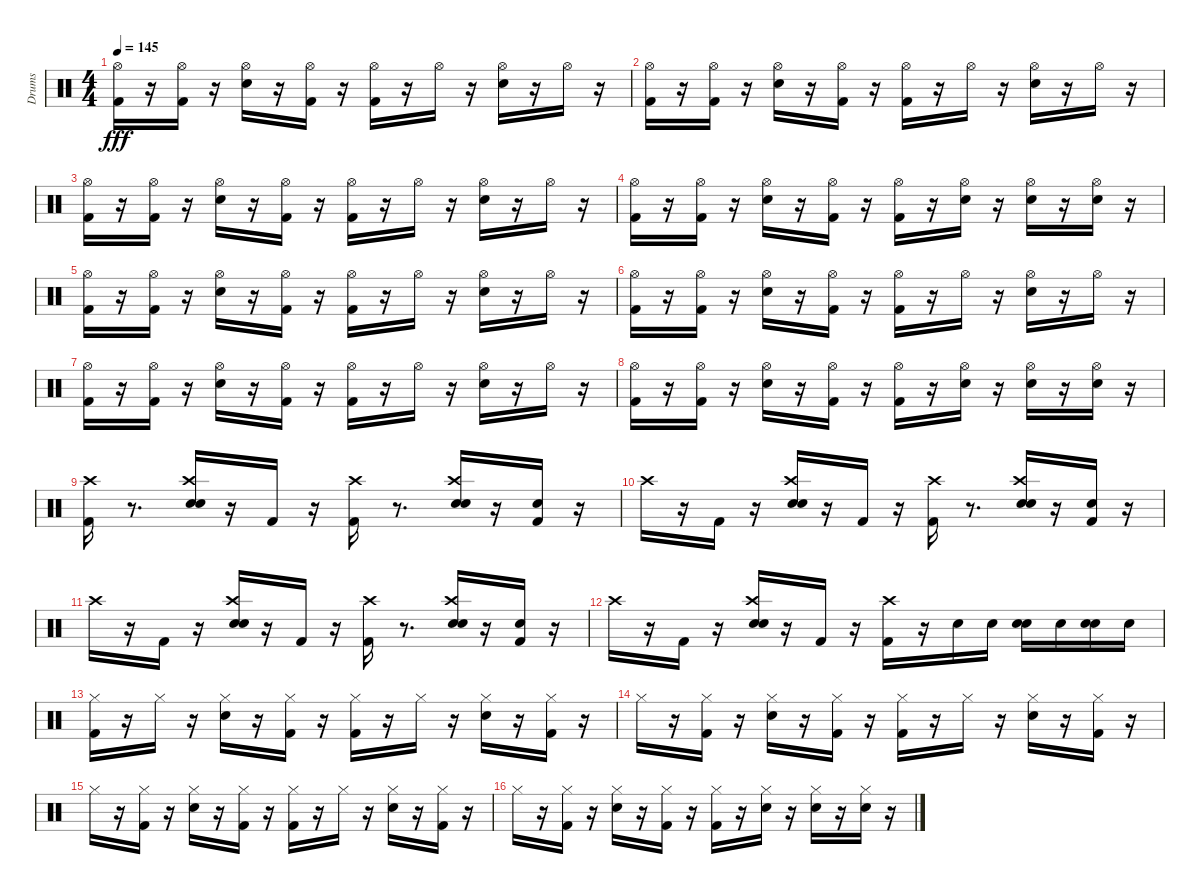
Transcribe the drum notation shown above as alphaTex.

\track ("Drums" "Drums") {instrument percussion}
\staff {score}
\articulation defaults
\ts (4 4)
\tempo 145
\clef neutral
\ks c
("Hi-Hat (open)" "Kick (hit) 2").16{dy fff} r.16 ("Kick (hit) 2" "Hi-Hat (open)").16 r.16 ("Hi-Hat (open)" "Electric Snare (hit)").16 r.16 ("Kick (hit) 2" "Hi-Hat (open)").16 r.16 ("Hi-Hat (open)" "Kick (hit) 2").16 r.16 "Hi-Hat (open)".16 r.16 ("Hi-Hat (open)" "Electric Snare (hit)").16 r.16 "Hi-Hat (open)".16 r.16 |
("Hi-Hat (open)" "Kick (hit) 2").16 r.16 ("Kick (hit) 2" "Hi-Hat (open)").16 r.16 ("Hi-Hat (open)" "Electric Snare (hit)").16 r.16 ("Kick (hit) 2" "Hi-Hat (open)").16 r.16 ("Hi-Hat (open)" "Kick (hit) 2").16 r.16 "Hi-Hat (open)".16 r.16 ("Hi-Hat (open)" "Electric Snare (hit)").16 r.16 "Hi-Hat (open)".16 r.16 |
("Hi-Hat (open)" "Kick (hit) 2").16 r.16 ("Kick (hit) 2" "Hi-Hat (open)").16 r.16 ("Hi-Hat (open)" "Electric Snare (hit)").16 r.16 ("Kick (hit) 2" "Hi-Hat (open)").16 r.16 ("Hi-Hat (open)" "Kick (hit) 2").16 r.16 "Hi-Hat (open)".16 r.16 ("Hi-Hat (open)" "Electric Snare (hit)").16 r.16 "Hi-Hat (open)".16 r.16 |
("Hi-Hat (open)" "Kick (hit) 2").16 r.16 ("Kick (hit) 2" "Hi-Hat (open)").16 r.16 ("Hi-Hat (open)" "Electric Snare (hit)").16 r.16 ("Kick (hit) 2" "Hi-Hat (open)").16 r.16 ("Hi-Hat (open)" "Kick (hit) 2").16 r.16 ("Electric Snare (hit)" "Hi-Hat (open)").16 r.16 ("Hi-Hat (open)" "Electric Snare (hit)").16 r.16 ("Electric Snare (hit)" "Hi-Hat (open)").16 r.16 |
("Hi-Hat (open)" "Kick (hit) 2").16 r.16 ("Kick (hit) 2" "Hi-Hat (open)").16 r.16 ("Hi-Hat (open)" "Electric Snare (hit)").16 r.16 ("Kick (hit) 2" "Hi-Hat (open)").16 r.16 ("Hi-Hat (open)" "Kick (hit) 2").16 r.16 "Hi-Hat (open)".16 r.16 ("Hi-Hat (open)" "Electric Snare (hit)").16 r.16 "Hi-Hat (open)".16 r.16 |
("Hi-Hat (open)" "Kick (hit) 2").16 r.16 ("Kick (hit) 2" "Hi-Hat (open)").16 r.16 ("Hi-Hat (open)" "Electric Snare (hit)").16 r.16 ("Kick (hit) 2" "Hi-Hat (open)").16 r.16 ("Hi-Hat (open)" "Kick (hit) 2").16 r.16 "Hi-Hat (open)".16 r.16 ("Hi-Hat (open)" "Electric Snare (hit)").16 r.16 "Hi-Hat (open)".16 r.16 |
("Hi-Hat (open)" "Kick (hit) 2").16 r.16 ("Kick (hit) 2" "Hi-Hat (open)").16 r.16 ("Hi-Hat (open)" "Electric Snare (hit)").16 r.16 ("Kick (hit) 2" "Hi-Hat (open)").16 r.16 ("Hi-Hat (open)" "Kick (hit) 2").16 r.16 "Hi-Hat (open)".16 r.16 ("Hi-Hat (open)" "Electric Snare (hit)").16 r.16 "Hi-Hat (open)".16 r.16 |
("Hi-Hat (open)" "Kick (hit) 2").16 r.16 ("Kick (hit) 2" "Hi-Hat (open)").16 r.16 ("Hi-Hat (open)" "Electric Snare (hit)").16 r.16 ("Kick (hit) 2" "Hi-Hat (open)").16 r.16 ("Hi-Hat (open)" "Kick (hit) 2").16 r.16 ("Electric Snare (hit)" "Hi-Hat (open)").16 r.16 ("Hi-Hat (open)" "Electric Snare (hit)").16 r.16 ("Electric Snare (hit)" "Hi-Hat (open)").16 r.16 |
("Kick (hit) 2" "Crash high (hit)").16 r.8{d} ("Crash high (hit)" "Hand Clap (hit)" "Electric Snare (hit)").16 r.16 "Kick (hit) 2".16 r.16 ("Crash high (hit)" "Kick (hit) 2").16 r.8{d} ("Crash high (hit)" "Hand Clap (hit)" "Electric Snare (hit)").16 r.16 ("Hand Clap (hit)" "Kick (hit) 2").16 r.16 |
"Crash high (hit)".16 r.16 "Kick (hit) 2".16 r.16 ("Crash high (hit)" "Hand Clap (hit)" "Electric Snare (hit)").16 r.16 "Kick (hit) 2".16 r.16 ("Crash high (hit)" "Kick (hit) 2").16 r.8{d} ("Crash high (hit)" "Hand Clap (hit)" "Electric Snare (hit)").16 r.16 ("Hand Clap (hit)" "Kick (hit) 2").16 r.16 |
"Crash high (hit)".16 r.16 "Kick (hit) 2".16 r.16 ("Crash high (hit)" "Hand Clap (hit)" "Electric Snare (hit)").16 r.16 "Kick (hit) 2".16 r.16 ("Crash high (hit)" "Kick (hit) 2").16 r.8{d} ("Crash high (hit)" "Hand Clap (hit)" "Electric Snare (hit)").16 r.16 ("Hand Clap (hit)" "Kick (hit) 2").16 r.16 |
"Crash high (hit)".16 r.16 "Kick (hit) 2".16 r.16 ("Crash high (hit)" "Electric Snare (hit)" "Hand Clap (hit)").16 r.16 "Kick (hit) 2".16 r.16 ("Crash high (hit)" "Kick (hit) 2").16 r.16 "Electric Snare (hit)".16 "Electric Snare (hit)".16 ("Electric Snare (hit)" "Hand Clap (hit)").16 "Electric Snare (hit)".16 ("Electric Snare (hit)" "Hand Clap (hit)").16 "Electric Snare (hit)".16 |
("Hi-Hat (closed)" "Kick (hit) 2").16 r.16 "Hi-Hat (closed)".16 r.16 ("Hi-Hat (closed)" "Electric Snare (hit)").16 r.16 ("Hi-Hat (closed)" "Kick (hit) 2").16 r.16 ("Hi-Hat (closed)" "Kick (hit) 2").16 r.16 "Hi-Hat (closed)".16 r.16 ("Hi-Hat (closed)" "Electric Snare (hit)").16 r.16 ("Hi-Hat (closed)" "Kick (hit) 2").16 r.16 |
"Hi-Hat (closed)".16 r.16 ("Kick (hit) 2" "Hi-Hat (closed)").16 r.16 ("Electric Snare (hit)" "Hi-Hat (closed)").16 r.16 ("Kick (hit) 2" "Hi-Hat (closed)").16 r.16 ("Kick (hit) 2" "Hi-Hat (closed)").16 r.16 "Hi-Hat (closed)".16 r.16 ("Electric Snare (hit)" "Hi-Hat (closed)").16 r.16 ("Kick (hit) 2" "Hi-Hat (closed)").16 r.16 |
"Hi-Hat (closed)".16 r.16 ("Kick (hit) 2" "Hi-Hat (closed)").16 r.16 ("Electric Snare (hit)" "Hi-Hat (closed)").16 r.16 ("Kick (hit) 2" "Hi-Hat (closed)").16 r.16 ("Kick (hit) 2" "Hi-Hat (closed)").16 r.16 "Hi-Hat (closed)".16 r.16 ("Electric Snare (hit)" "Hi-Hat (closed)").16 r.16 ("Kick (hit) 2" "Hi-Hat (closed)").16 r.16 |
"Hi-Hat (closed)".16 r.16 ("Kick (hit) 2" "Hi-Hat (closed)").16 r.16 ("Electric Snare (hit)" "Hi-Hat (closed)").16 r.16 ("Kick (hit) 2" "Hi-Hat (closed)").16 r.16 ("Kick (hit) 2" "Hi-Hat (closed)").16 r.16 ("Electric Snare (hit)" "Hi-Hat (closed)").16 r.16 ("Electric Snare (hit)" "Hi-Hat (closed)").16 r.16 ("Electric Snare (hit)" "Hi-Hat (closed)").16 r.16
